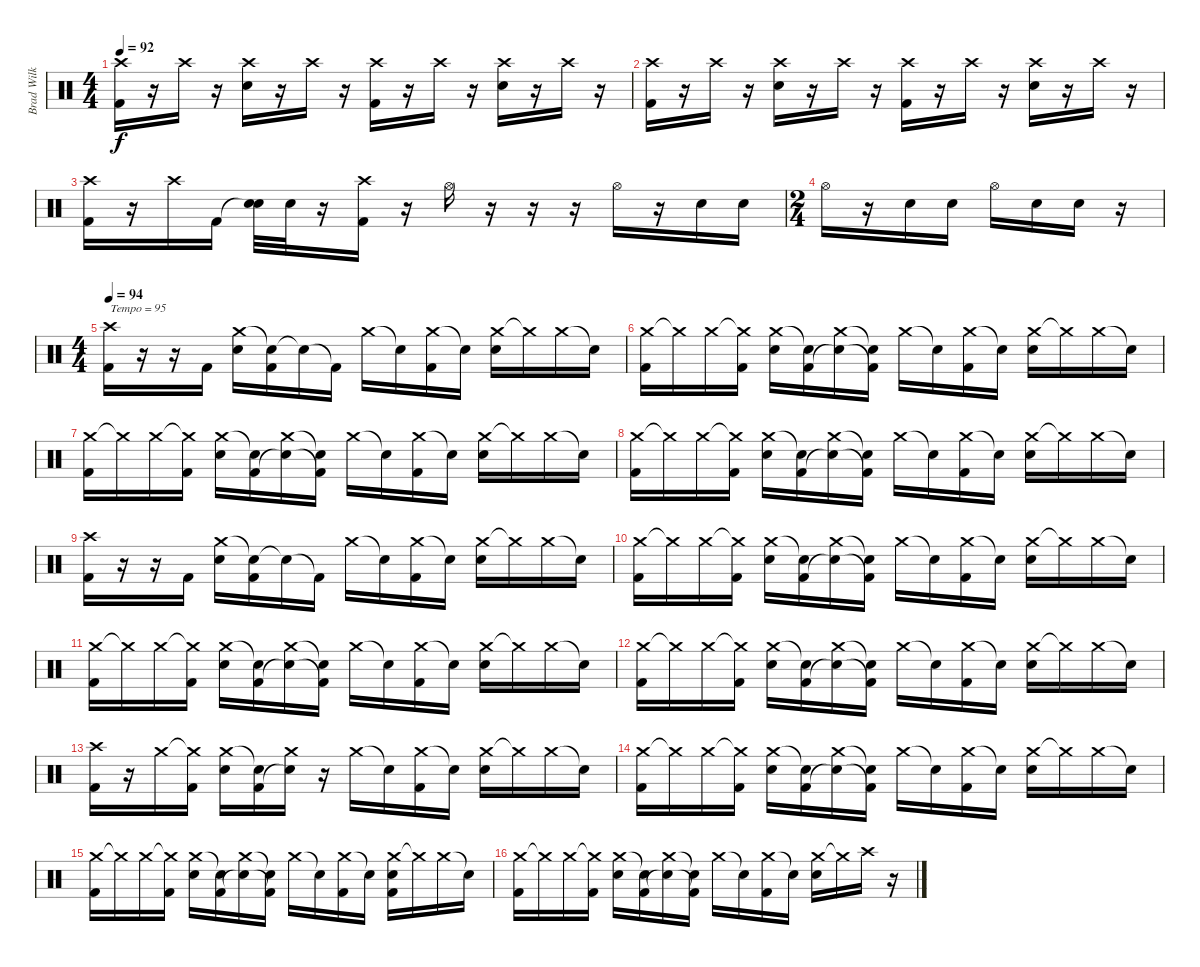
\track ("Brad Wilk (Drums)" "Brad Wilk ") {instrument percussion}
\staff {score}
\articulation defaults
\ts (4 4)
\tempo 92
\clef neutral
\ks c
("Crash high (hit)" "Kick (hit) 2").16{dy f} r.16 "Crash high (hit)".16 r.16 ("Crash high (hit)" "Snare (hit) 2").16 r.16 "Crash high (hit)".16 r.16 ("Crash high (hit)" "Kick (hit) 2").16 r.16 "Crash high (hit)".16 r.16 ("Crash high (hit)" "Snare (hit) 2").16 r.16 "Crash high (hit)".16 r.16 |
("Crash high (hit)" "Kick (hit) 2").16 r.16 "Crash high (hit)".16 r.16 ("Crash high (hit)" "Snare (hit) 2").16 r.16 "Crash high (hit)".16 r.16 ("Crash high (hit)" "Kick (hit) 2").16 r.16 "Crash high (hit)".16 r.16 ("Crash high (hit)" "Snare (hit) 2").16 r.16 "Crash high (hit)".16 r.16 |
("Crash high (hit)" "Kick (hit) 2").16 r.16 "Crash high (hit)".16 "Kick (hit) 2".16 ("Snare (hit)"{t} "Snare (hit) 2").32 "Snare (hit) 2".32 r.16 ("Crash high (hit)" "Kick (hit) 2").16 r.16 "Hi-Hat (open)".16 r.16 r.16 r.16 "Hi-Hat (open)".16 r.16 "Snare (hit) 2".16 "Snare (hit) 2".16 |
\ts (2 4)
"Hi-Hat (open)".16 r.16 "Snare (hit) 2".16 "Snare (hit) 2".16 "Hi-Hat (open)".16 "Snare (hit) 2".16 "Snare (hit) 2".16 r.16 |
\ts (4 4)
\tempo 94
("Crash high (hit)" "Kick (hit) 2").16{txt "Tempo = 95"} r.16 r.16 "Kick (hit) 2".16 ("Crash medium (hit)" "Snare (hit) 2").16 ("Snare (hit)"{t} "Kick (hit) 2").16 "Snare (hit)"{t}.16 "Kick (hit) 2"{t}.16 "Crash medium (hit)".16 "Snare (hit)"{t}.16 ("Crash medium (hit)" "Kick (hit) 2").16 "Snare (hit)"{t}.16 ("Crash medium (hit)" "Snare (hit) 2").16 "Crash medium (hit)"{t}.16 "Crash medium (hit)".16 "Snare (hit)"{t}.16 |
("Crash medium (hit)" "Kick (hit) 2").16 "Crash medium (hit)"{t}.16 "Crash medium (hit)".16 ("Crash medium (hit)"{t} "Kick (hit) 2").16 ("Crash medium (hit)" "Snare (hit) 2").16 ("Snare (hit)"{t} "Kick (hit) 2").16 ("Crash medium (hit)" "Snare (hit)"{t}).16 ("Snare (hit)"{t} "Kick (hit) 2"{t}).16 "Crash medium (hit)".16 "Snare (hit)"{t}.16 ("Crash medium (hit)" "Kick (hit) 2").16 "Snare (hit)"{t}.16 ("Crash medium (hit)" "Snare (hit) 2").16 "Crash medium (hit)"{t}.16 "Crash medium (hit)".16 "Snare (hit)"{t}.16 |
("Crash medium (hit)" "Kick (hit) 2").16 "Crash medium (hit)"{t}.16 "Crash medium (hit)".16 ("Crash medium (hit)"{t} "Kick (hit) 2").16 ("Crash medium (hit)" "Snare (hit) 2").16 ("Snare (hit)"{t} "Kick (hit) 2").16 ("Crash medium (hit)" "Snare (hit)"{t}).16 ("Snare (hit)"{t} "Kick (hit) 2"{t}).16 "Crash medium (hit)".16 "Snare (hit)"{t}.16 ("Crash medium (hit)" "Kick (hit) 2").16 "Snare (hit)"{t}.16 ("Crash medium (hit)" "Snare (hit) 2").16 "Crash medium (hit)"{t}.16 "Crash medium (hit)".16 "Snare (hit)"{t}.16 |
("Crash medium (hit)" "Kick (hit) 2").16 "Crash medium (hit)"{t}.16 "Crash medium (hit)".16 ("Crash medium (hit)"{t} "Kick (hit) 2").16 ("Crash medium (hit)" "Snare (hit) 2").16 ("Snare (hit)"{t} "Kick (hit) 2").16 ("Crash medium (hit)" "Snare (hit)"{t}).16 ("Snare (hit)"{t} "Kick (hit) 2"{t}).16 "Crash medium (hit)".16 "Snare (hit)"{t}.16 ("Crash medium (hit)" "Kick (hit) 2").16 "Snare (hit)"{t}.16 ("Crash medium (hit)" "Snare (hit) 2").16 "Crash medium (hit)"{t}.16 "Crash medium (hit)".16 "Snare (hit)"{t}.16 |
("Crash high (hit)" "Kick (hit) 2").16 r.16 r.16 "Kick (hit) 2".16 ("Crash medium (hit)" "Snare (hit) 2").16 ("Snare (hit)"{t} "Kick (hit) 2").16 "Snare (hit)"{t}.16 "Kick (hit) 2"{t}.16 "Crash medium (hit)".16 "Snare (hit)"{t}.16 ("Crash medium (hit)" "Kick (hit) 2").16 "Snare (hit)"{t}.16 ("Crash medium (hit)" "Snare (hit) 2").16 "Crash medium (hit)"{t}.16 "Crash medium (hit)".16 "Snare (hit)"{t}.16 |
("Crash medium (hit)" "Kick (hit) 2").16 "Crash medium (hit)"{t}.16 "Crash medium (hit)".16 ("Crash medium (hit)"{t} "Kick (hit) 2").16 ("Crash medium (hit)" "Snare (hit) 2").16 ("Snare (hit)"{t} "Kick (hit) 2").16 ("Crash medium (hit)" "Snare (hit)"{t}).16 ("Snare (hit)"{t} "Kick (hit) 2"{t}).16 "Crash medium (hit)".16 "Snare (hit)"{t}.16 ("Crash medium (hit)" "Kick (hit) 2").16 "Snare (hit)"{t}.16 ("Crash medium (hit)" "Snare (hit) 2").16 "Crash medium (hit)"{t}.16 "Crash medium (hit)".16 "Snare (hit)"{t}.16 |
("Crash medium (hit)" "Kick (hit) 2").16 "Crash medium (hit)"{t}.16 "Crash medium (hit)".16 ("Crash medium (hit)"{t} "Kick (hit) 2").16 ("Crash medium (hit)" "Snare (hit) 2").16 ("Snare (hit)"{t} "Kick (hit) 2").16 ("Crash medium (hit)" "Snare (hit)"{t}).16 ("Snare (hit)"{t} "Kick (hit) 2"{t}).16 "Crash medium (hit)".16 "Snare (hit)"{t}.16 ("Crash medium (hit)" "Kick (hit) 2").16 "Snare (hit)"{t}.16 ("Crash medium (hit)" "Snare (hit) 2").16 "Crash medium (hit)"{t}.16 "Crash medium (hit)".16 "Snare (hit)"{t}.16 |
("Crash medium (hit)" "Kick (hit) 2").16 "Crash medium (hit)"{t}.16 "Crash medium (hit)".16 ("Crash medium (hit)"{t} "Kick (hit) 2").16 ("Crash medium (hit)" "Snare (hit) 2").16 ("Snare (hit)"{t} "Kick (hit) 2").16 ("Crash medium (hit)" "Snare (hit)"{t}).16 ("Snare (hit)"{t} "Kick (hit) 2"{t}).16 "Crash medium (hit)".16 "Snare (hit)"{t}.16 ("Crash medium (hit)" "Kick (hit) 2").16 "Snare (hit)"{t}.16 ("Crash medium (hit)" "Snare (hit) 2").16 "Crash medium (hit)"{t}.16 "Crash medium (hit)".16 "Snare (hit)"{t}.16 |
("Crash high (hit)" "Kick (hit) 2").16 r.16 "Crash medium (hit)".16 ("Crash medium (hit)"{t} "Kick (hit) 2").16 ("Crash medium (hit)" "Snare (hit) 2").16 ("Snare (hit)"{t} "Kick (hit) 2").16 ("Crash medium (hit)" "Snare (hit)"{t}).16 r.16 "Crash medium (hit)".16 "Snare (hit)"{t}.16 ("Crash medium (hit)" "Kick (hit) 2").16 "Snare (hit)"{t}.16 ("Crash medium (hit)" "Snare (hit) 2").16 "Crash medium (hit)"{t}.16 "Crash medium (hit)".16 "Snare (hit)"{t}.16 |
("Crash medium (hit)" "Kick (hit) 2").16 "Crash medium (hit)"{t}.16 "Crash medium (hit)".16 ("Crash medium (hit)"{t} "Kick (hit) 2").16 ("Crash medium (hit)" "Snare (hit) 2").16 ("Snare (hit)"{t} "Kick (hit) 2").16 ("Crash medium (hit)" "Snare (hit)"{t}).16 ("Snare (hit)"{t} "Kick (hit) 2"{t}).16 "Crash medium (hit)".16 "Snare (hit)"{t}.16 ("Crash medium (hit)" "Kick (hit) 2").16 "Snare (hit)"{t}.16 ("Crash medium (hit)" "Snare (hit) 2").16 "Crash medium (hit)"{t}.16 "Crash medium (hit)".16 "Snare (hit)"{t}.16 |
("Crash medium (hit)" "Kick (hit) 2").16 "Crash medium (hit)"{t}.16 "Crash medium (hit)".16 ("Crash medium (hit)"{t} "Kick (hit) 2").16 ("Crash medium (hit)" "Snare (hit) 2").16 ("Snare (hit)"{t} "Kick (hit) 2").16 ("Crash medium (hit)" "Snare (hit)"{t}).16 ("Snare (hit)"{t} "Kick (hit) 2"{t}).16 "Crash medium (hit)".16 "Snare (hit)"{t}.16 ("Crash medium (hit)" "Kick (hit) 2").16 "Snare (hit)"{t}.16 ("Crash medium (hit)" "Snare (hit) 2" "Kick (hit) 2").16 "Crash medium (hit)"{t}.16 "Crash medium (hit)".16 "Snare (hit)"{t}.16 |
("Crash medium (hit)" "Kick (hit) 2").16 "Crash medium (hit)"{t}.16 "Crash medium (hit)".16 ("Crash medium (hit)"{t} "Kick (hit) 2").16 ("Crash medium (hit)" "Snare (hit) 2").16 ("Snare (hit)"{t} "Kick (hit) 2").16 ("Crash medium (hit)" "Snare (hit)"{t}).16 ("Snare (hit)"{t} "Kick (hit) 2"{t}).16 "Crash medium (hit)".16 "Snare (hit)"{t}.16 ("Crash medium (hit)" "Kick (hit) 2").16 "Snare (hit)"{t}.16 ("Crash medium (hit)" "Snare (hit) 2").16 "Crash medium (hit)"{t}.16 "Crash high (hit)".16 r.16
